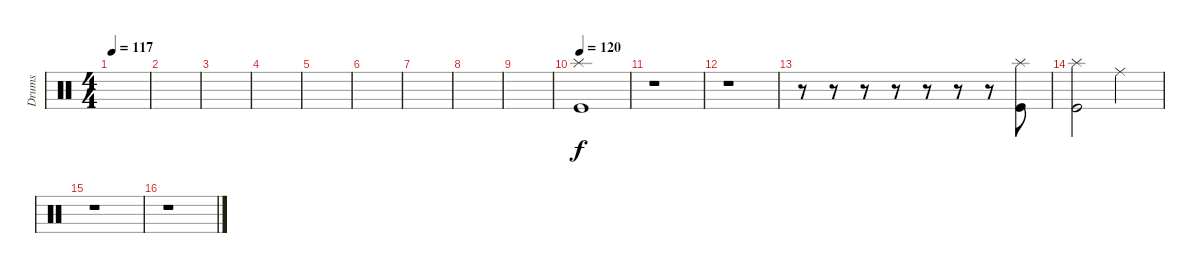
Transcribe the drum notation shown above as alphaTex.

\track ("Drums" "Drums") {instrument percussion}
\staff
\articulation defaults
\ts (4 4)
\tempo 117
\clef neutral
\ks c
|
|
|
|
|
|
|
|
|
\tempo 120
("Splash (hit)" "Kick (hit)").1 |
r.1 |
r.1 |
r.8 r.8 r.8 r.8 r.8 r.8 r.8 ("Splash (hit)" "Kick (hit)").8 |
("Splash (hit)" "Kick (hit)").2 "Ride (middle)".2 |
r.1 |
r.1
